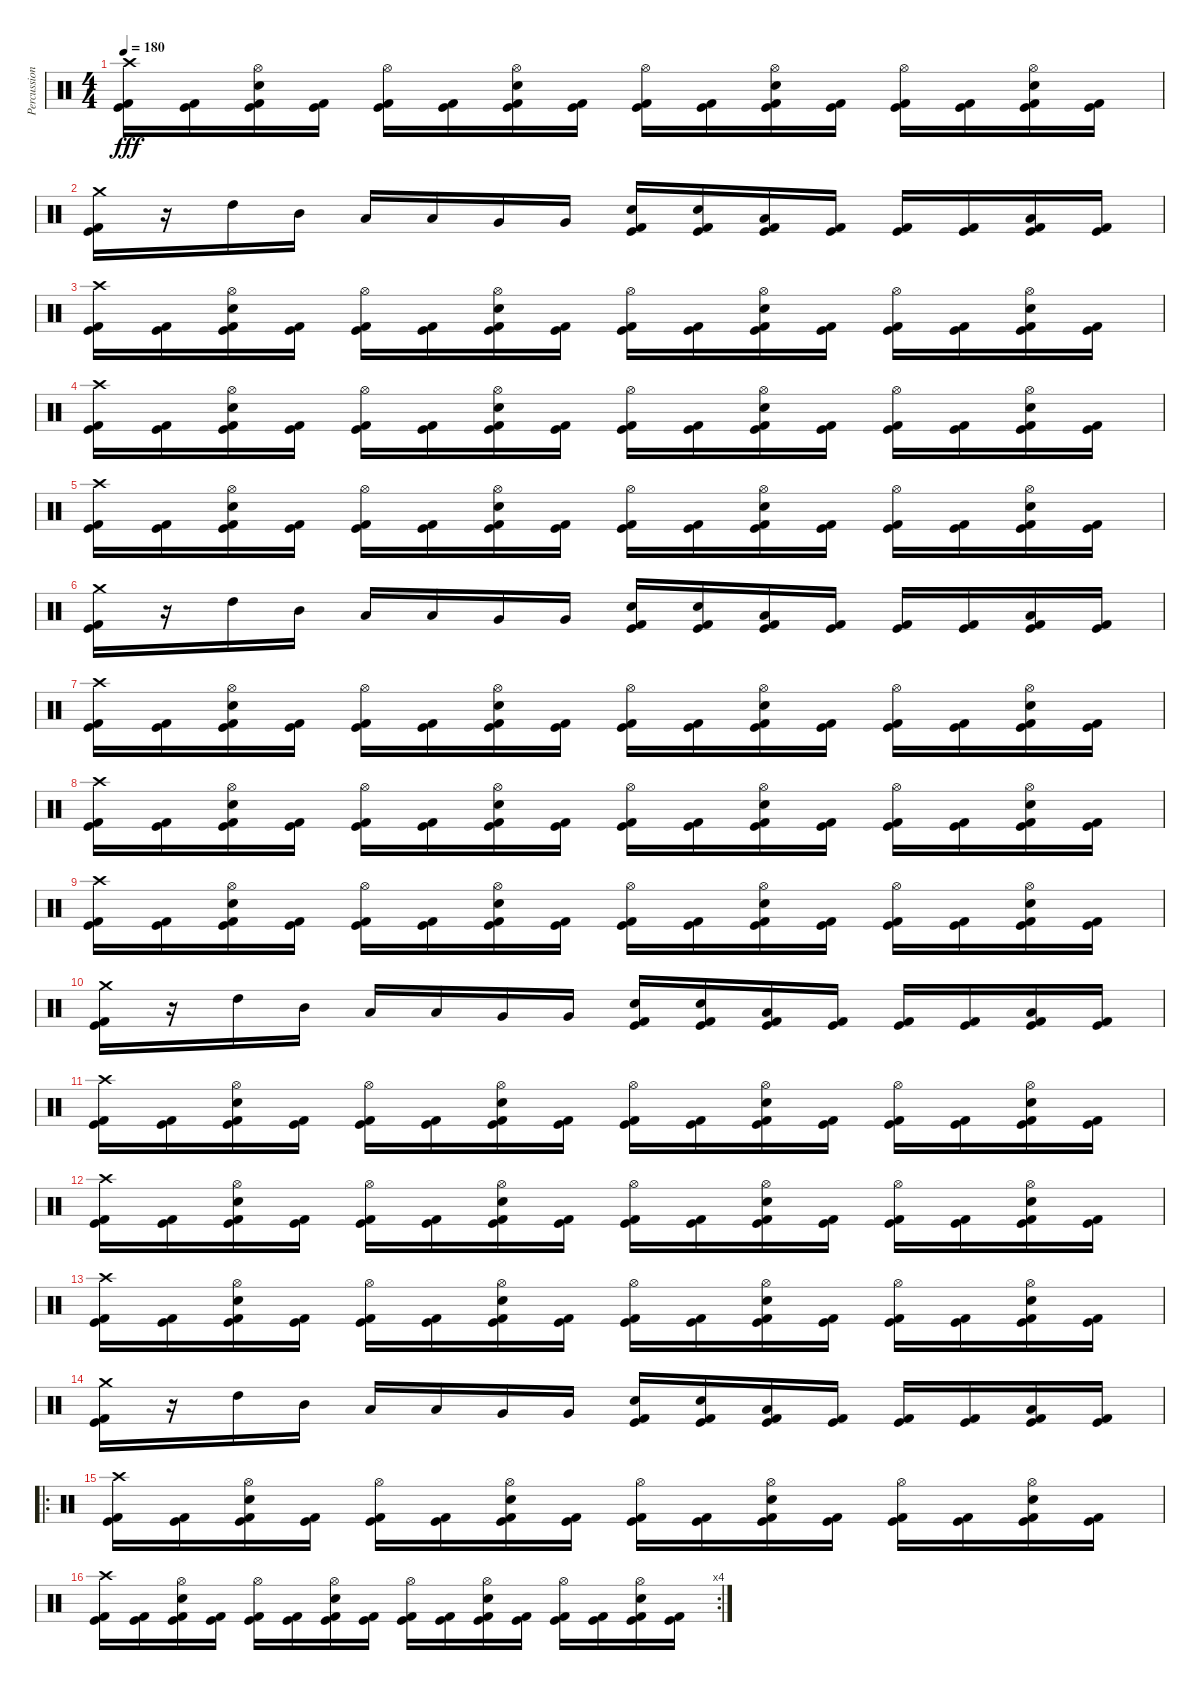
\track ("Percussion" "Percussion") {instrument percussion}
\staff {score}
\articulation defaults
\ts (4 4)
\tempo 180
\clef neutral
\ks c
("Kick (hit) 2" "Kick (hit)" "Crash high (hit)").16{dy fff} ("Kick (hit) 2" "Kick (hit)").16 ("Kick (hit) 2" "Kick (hit)" "Snare (hit) 2" "Hi-Hat (open)").16 ("Kick (hit) 2" "Kick (hit)").16 ("Kick (hit) 2" "Kick (hit)" "Hi-Hat (open)").16 ("Kick (hit) 2" "Kick (hit)").16 ("Kick (hit) 2" "Kick (hit)" "Snare (hit) 2" "Hi-Hat (open)").16 ("Kick (hit) 2" "Kick (hit)").16 ("Kick (hit) 2" "Kick (hit)" "Hi-Hat (open)").16 ("Kick (hit) 2" "Kick (hit)").16 ("Kick (hit) 2" "Kick (hit)" "Snare (hit) 2" "Hi-Hat (open)").16 ("Kick (hit) 2" "Kick (hit)").16 ("Kick (hit) 2" "Kick (hit)" "Hi-Hat (open)").16 ("Kick (hit) 2" "Kick (hit)").16 ("Kick (hit) 2" "Kick (hit)" "Snare (hit) 2" "Hi-Hat (open)").16 ("Kick (hit) 2" "Kick (hit)").16 |
("Kick (hit) 2" "Kick (hit)" "Crash medium (hit)").16 r.16 "High Tom (hit)".16 "Mid Tom (hit)".16 "Low Tom (hit)".16 "Low Tom (hit)".16 "Very Low Tom (hit)".16 "Very Low Tom (hit)".16 ("Kick (hit) 2" "Kick (hit)" "Snare (hit) 2").16 ("Kick (hit) 2" "Kick (hit)" "Snare (hit) 2").16 ("Kick (hit) 2" "Kick (hit)" "Low Tom (hit)").16 ("Kick (hit) 2" "Kick (hit)").16 ("Kick (hit) 2" "Kick (hit)").16 ("Kick (hit) 2" "Kick (hit)").16 ("Kick (hit) 2" "Kick (hit)" "Low Floor Tom (hit)").16 ("Kick (hit) 2" "Kick (hit)").16 |
("Kick (hit) 2" "Kick (hit)" "Crash high (hit)").16 ("Kick (hit) 2" "Kick (hit)").16 ("Kick (hit) 2" "Kick (hit)" "Snare (hit) 2" "Hi-Hat (open)").16 ("Kick (hit) 2" "Kick (hit)").16 ("Kick (hit) 2" "Kick (hit)" "Hi-Hat (open)").16 ("Kick (hit) 2" "Kick (hit)").16 ("Kick (hit) 2" "Kick (hit)" "Snare (hit) 2" "Hi-Hat (open)").16 ("Kick (hit) 2" "Kick (hit)").16 ("Kick (hit) 2" "Kick (hit)" "Hi-Hat (open)").16 ("Kick (hit) 2" "Kick (hit)").16 ("Kick (hit) 2" "Kick (hit)" "Snare (hit) 2" "Hi-Hat (open)").16 ("Kick (hit) 2" "Kick (hit)").16 ("Kick (hit) 2" "Kick (hit)" "Hi-Hat (open)").16 ("Kick (hit) 2" "Kick (hit)").16 ("Kick (hit) 2" "Kick (hit)" "Snare (hit) 2" "Hi-Hat (open)").16 ("Kick (hit) 2" "Kick (hit)").16 |
("Kick (hit) 2" "Kick (hit)" "Crash high (hit)").16 ("Kick (hit) 2" "Kick (hit)").16 ("Kick (hit) 2" "Kick (hit)" "Snare (hit) 2" "Hi-Hat (open)").16 ("Kick (hit) 2" "Kick (hit)").16 ("Kick (hit) 2" "Kick (hit)" "Hi-Hat (open)").16 ("Kick (hit) 2" "Kick (hit)").16 ("Kick (hit) 2" "Kick (hit)" "Snare (hit) 2" "Hi-Hat (open)").16 ("Kick (hit) 2" "Kick (hit)").16 ("Kick (hit) 2" "Kick (hit)" "Hi-Hat (open)").16 ("Kick (hit) 2" "Kick (hit)").16 ("Kick (hit) 2" "Kick (hit)" "Snare (hit) 2" "Hi-Hat (open)").16 ("Kick (hit) 2" "Kick (hit)").16 ("Kick (hit) 2" "Kick (hit)" "Hi-Hat (open)").16 ("Kick (hit) 2" "Kick (hit)").16 ("Kick (hit) 2" "Kick (hit)" "Snare (hit) 2" "Hi-Hat (open)").16 ("Kick (hit) 2" "Kick (hit)").16 |
("Kick (hit) 2" "Kick (hit)" "Crash high (hit)").16 ("Kick (hit) 2" "Kick (hit)").16 ("Kick (hit) 2" "Kick (hit)" "Snare (hit) 2" "Hi-Hat (open)").16 ("Kick (hit) 2" "Kick (hit)").16 ("Kick (hit) 2" "Kick (hit)" "Hi-Hat (open)").16 ("Kick (hit) 2" "Kick (hit)").16 ("Kick (hit) 2" "Kick (hit)" "Snare (hit) 2" "Hi-Hat (open)").16 ("Kick (hit) 2" "Kick (hit)").16 ("Kick (hit) 2" "Kick (hit)" "Hi-Hat (open)").16 ("Kick (hit) 2" "Kick (hit)").16 ("Kick (hit) 2" "Kick (hit)" "Snare (hit) 2" "Hi-Hat (open)").16 ("Kick (hit) 2" "Kick (hit)").16 ("Kick (hit) 2" "Kick (hit)" "Hi-Hat (open)").16 ("Kick (hit) 2" "Kick (hit)").16 ("Kick (hit) 2" "Kick (hit)" "Snare (hit) 2" "Hi-Hat (open)").16 ("Kick (hit) 2" "Kick (hit)").16 |
("Kick (hit) 2" "Kick (hit)" "Crash medium (hit)").16 r.16 "High Tom (hit)".16 "Mid Tom (hit)".16 "Low Tom (hit)".16 "Low Tom (hit)".16 "Very Low Tom (hit)".16 "Very Low Tom (hit)".16 ("Kick (hit) 2" "Kick (hit)" "Snare (hit) 2").16 ("Kick (hit) 2" "Kick (hit)" "Snare (hit) 2").16 ("Kick (hit) 2" "Kick (hit)" "Low Tom (hit)").16 ("Kick (hit) 2" "Kick (hit)").16 ("Kick (hit) 2" "Kick (hit)").16 ("Kick (hit) 2" "Kick (hit)").16 ("Kick (hit) 2" "Kick (hit)" "Low Floor Tom (hit)").16 ("Kick (hit) 2" "Kick (hit)").16 |
("Kick (hit) 2" "Kick (hit)" "Crash high (hit)").16 ("Kick (hit) 2" "Kick (hit)").16 ("Kick (hit) 2" "Kick (hit)" "Snare (hit) 2" "Hi-Hat (open)").16 ("Kick (hit) 2" "Kick (hit)").16 ("Kick (hit) 2" "Kick (hit)" "Hi-Hat (open)").16 ("Kick (hit) 2" "Kick (hit)").16 ("Kick (hit) 2" "Kick (hit)" "Snare (hit) 2" "Hi-Hat (open)").16 ("Kick (hit) 2" "Kick (hit)").16 ("Kick (hit) 2" "Kick (hit)" "Hi-Hat (open)").16 ("Kick (hit) 2" "Kick (hit)").16 ("Kick (hit) 2" "Kick (hit)" "Snare (hit) 2" "Hi-Hat (open)").16 ("Kick (hit) 2" "Kick (hit)").16 ("Kick (hit) 2" "Kick (hit)" "Hi-Hat (open)").16 ("Kick (hit) 2" "Kick (hit)").16 ("Kick (hit) 2" "Kick (hit)" "Snare (hit) 2" "Hi-Hat (open)").16 ("Kick (hit) 2" "Kick (hit)").16 |
("Kick (hit) 2" "Kick (hit)" "Crash high (hit)").16 ("Kick (hit) 2" "Kick (hit)").16 ("Kick (hit) 2" "Kick (hit)" "Snare (hit) 2" "Hi-Hat (open)").16 ("Kick (hit) 2" "Kick (hit)").16 ("Kick (hit) 2" "Kick (hit)" "Hi-Hat (open)").16 ("Kick (hit) 2" "Kick (hit)").16 ("Kick (hit) 2" "Kick (hit)" "Snare (hit) 2" "Hi-Hat (open)").16 ("Kick (hit) 2" "Kick (hit)").16 ("Kick (hit) 2" "Kick (hit)" "Hi-Hat (open)").16 ("Kick (hit) 2" "Kick (hit)").16 ("Kick (hit) 2" "Kick (hit)" "Snare (hit) 2" "Hi-Hat (open)").16 ("Kick (hit) 2" "Kick (hit)").16 ("Kick (hit) 2" "Kick (hit)" "Hi-Hat (open)").16 ("Kick (hit) 2" "Kick (hit)").16 ("Kick (hit) 2" "Kick (hit)" "Snare (hit) 2" "Hi-Hat (open)").16 ("Kick (hit) 2" "Kick (hit)").16 |
("Kick (hit) 2" "Kick (hit)" "Crash high (hit)").16 ("Kick (hit) 2" "Kick (hit)").16 ("Kick (hit) 2" "Kick (hit)" "Snare (hit) 2" "Hi-Hat (open)").16 ("Kick (hit) 2" "Kick (hit)").16 ("Kick (hit) 2" "Kick (hit)" "Hi-Hat (open)").16 ("Kick (hit) 2" "Kick (hit)").16 ("Kick (hit) 2" "Kick (hit)" "Snare (hit) 2" "Hi-Hat (open)").16 ("Kick (hit) 2" "Kick (hit)").16 ("Kick (hit) 2" "Kick (hit)" "Hi-Hat (open)").16 ("Kick (hit) 2" "Kick (hit)").16 ("Kick (hit) 2" "Kick (hit)" "Snare (hit) 2" "Hi-Hat (open)").16 ("Kick (hit) 2" "Kick (hit)").16 ("Kick (hit) 2" "Kick (hit)" "Hi-Hat (open)").16 ("Kick (hit) 2" "Kick (hit)").16 ("Kick (hit) 2" "Kick (hit)" "Snare (hit) 2" "Hi-Hat (open)").16 ("Kick (hit) 2" "Kick (hit)").16 |
("Kick (hit) 2" "Kick (hit)" "Crash medium (hit)").16 r.16 "High Tom (hit)".16 "Mid Tom (hit)".16 "Low Tom (hit)".16 "Low Tom (hit)".16 "Very Low Tom (hit)".16 "Very Low Tom (hit)".16 ("Kick (hit) 2" "Kick (hit)" "Snare (hit) 2").16 ("Kick (hit) 2" "Kick (hit)" "Snare (hit) 2").16 ("Kick (hit) 2" "Kick (hit)" "Low Tom (hit)").16 ("Kick (hit) 2" "Kick (hit)").16 ("Kick (hit) 2" "Kick (hit)").16 ("Kick (hit) 2" "Kick (hit)").16 ("Kick (hit) 2" "Kick (hit)" "Low Floor Tom (hit)").16 ("Kick (hit) 2" "Kick (hit)").16 |
("Kick (hit) 2" "Kick (hit)" "Crash high (hit)").16 ("Kick (hit) 2" "Kick (hit)").16 ("Kick (hit) 2" "Kick (hit)" "Snare (hit) 2" "Hi-Hat (open)").16 ("Kick (hit) 2" "Kick (hit)").16 ("Kick (hit) 2" "Kick (hit)" "Hi-Hat (open)").16 ("Kick (hit) 2" "Kick (hit)").16 ("Kick (hit) 2" "Kick (hit)" "Snare (hit) 2" "Hi-Hat (open)").16 ("Kick (hit) 2" "Kick (hit)").16 ("Kick (hit) 2" "Kick (hit)" "Hi-Hat (open)").16 ("Kick (hit) 2" "Kick (hit)").16 ("Kick (hit) 2" "Kick (hit)" "Snare (hit) 2" "Hi-Hat (open)").16 ("Kick (hit) 2" "Kick (hit)").16 ("Kick (hit) 2" "Kick (hit)" "Hi-Hat (open)").16 ("Kick (hit) 2" "Kick (hit)").16 ("Kick (hit) 2" "Kick (hit)" "Snare (hit) 2" "Hi-Hat (open)").16 ("Kick (hit) 2" "Kick (hit)").16 |
("Kick (hit) 2" "Kick (hit)" "Crash high (hit)").16 ("Kick (hit) 2" "Kick (hit)").16 ("Kick (hit) 2" "Kick (hit)" "Snare (hit) 2" "Hi-Hat (open)").16 ("Kick (hit) 2" "Kick (hit)").16 ("Kick (hit) 2" "Kick (hit)" "Hi-Hat (open)").16 ("Kick (hit) 2" "Kick (hit)").16 ("Kick (hit) 2" "Kick (hit)" "Snare (hit) 2" "Hi-Hat (open)").16 ("Kick (hit) 2" "Kick (hit)").16 ("Kick (hit) 2" "Kick (hit)" "Hi-Hat (open)").16 ("Kick (hit) 2" "Kick (hit)").16 ("Kick (hit) 2" "Kick (hit)" "Snare (hit) 2" "Hi-Hat (open)").16 ("Kick (hit) 2" "Kick (hit)").16 ("Kick (hit) 2" "Kick (hit)" "Hi-Hat (open)").16 ("Kick (hit) 2" "Kick (hit)").16 ("Kick (hit) 2" "Kick (hit)" "Snare (hit) 2" "Hi-Hat (open)").16 ("Kick (hit) 2" "Kick (hit)").16 |
("Kick (hit) 2" "Kick (hit)" "Crash high (hit)").16 ("Kick (hit) 2" "Kick (hit)").16 ("Kick (hit) 2" "Kick (hit)" "Snare (hit) 2" "Hi-Hat (open)").16 ("Kick (hit) 2" "Kick (hit)").16 ("Kick (hit) 2" "Kick (hit)" "Hi-Hat (open)").16 ("Kick (hit) 2" "Kick (hit)").16 ("Kick (hit) 2" "Kick (hit)" "Snare (hit) 2" "Hi-Hat (open)").16 ("Kick (hit) 2" "Kick (hit)").16 ("Kick (hit) 2" "Kick (hit)" "Hi-Hat (open)").16 ("Kick (hit) 2" "Kick (hit)").16 ("Kick (hit) 2" "Kick (hit)" "Snare (hit) 2" "Hi-Hat (open)").16 ("Kick (hit) 2" "Kick (hit)").16 ("Kick (hit) 2" "Kick (hit)" "Hi-Hat (open)").16 ("Kick (hit) 2" "Kick (hit)").16 ("Kick (hit) 2" "Kick (hit)" "Snare (hit) 2" "Hi-Hat (open)").16 ("Kick (hit) 2" "Kick (hit)").16 |
("Kick (hit) 2" "Kick (hit)" "Crash medium (hit)").16 r.16 "High Tom (hit)".16 "Mid Tom (hit)".16 "Low Tom (hit)".16 "Low Tom (hit)".16 "Very Low Tom (hit)".16 "Very Low Tom (hit)".16 ("Kick (hit) 2" "Kick (hit)" "Snare (hit) 2").16 ("Kick (hit) 2" "Kick (hit)" "Snare (hit) 2").16 ("Kick (hit) 2" "Kick (hit)" "Low Tom (hit)").16 ("Kick (hit) 2" "Kick (hit)").16 ("Kick (hit) 2" "Kick (hit)").16 ("Kick (hit) 2" "Kick (hit)").16 ("Kick (hit) 2" "Kick (hit)" "Low Floor Tom (hit)").16 ("Kick (hit) 2" "Kick (hit)").16 |
\ro
("Kick (hit) 2" "Kick (hit)" "Crash high (hit)").16 ("Kick (hit) 2" "Kick (hit)").16 ("Kick (hit) 2" "Kick (hit)" "Snare (hit) 2" "Hi-Hat (open)").16 ("Kick (hit) 2" "Kick (hit)").16 ("Kick (hit) 2" "Kick (hit)" "Hi-Hat (open)").16 ("Kick (hit) 2" "Kick (hit)").16 ("Kick (hit) 2" "Kick (hit)" "Snare (hit) 2" "Hi-Hat (open)").16 ("Kick (hit) 2" "Kick (hit)").16 ("Kick (hit) 2" "Kick (hit)" "Hi-Hat (open)").16 ("Kick (hit) 2" "Kick (hit)").16 ("Kick (hit) 2" "Kick (hit)" "Snare (hit) 2" "Hi-Hat (open)").16 ("Kick (hit) 2" "Kick (hit)").16 ("Kick (hit) 2" "Kick (hit)" "Hi-Hat (open)").16 ("Kick (hit) 2" "Kick (hit)").16 ("Kick (hit) 2" "Kick (hit)" "Snare (hit) 2" "Hi-Hat (open)").16 ("Kick (hit) 2" "Kick (hit)").16 |
\rc 4
("Kick (hit) 2" "Kick (hit)" "Crash high (hit)").16 ("Kick (hit) 2" "Kick (hit)").16 ("Kick (hit) 2" "Kick (hit)" "Snare (hit) 2" "Hi-Hat (open)").16 ("Kick (hit) 2" "Kick (hit)").16 ("Kick (hit) 2" "Kick (hit)" "Hi-Hat (open)").16 ("Kick (hit) 2" "Kick (hit)").16 ("Kick (hit) 2" "Kick (hit)" "Snare (hit) 2" "Hi-Hat (open)").16 ("Kick (hit) 2" "Kick (hit)").16 ("Kick (hit) 2" "Kick (hit)" "Hi-Hat (open)").16 ("Kick (hit) 2" "Kick (hit)").16 ("Kick (hit) 2" "Kick (hit)" "Snare (hit) 2" "Hi-Hat (open)").16 ("Kick (hit) 2" "Kick (hit)").16 ("Kick (hit) 2" "Kick (hit)" "Hi-Hat (open)").16 ("Kick (hit) 2" "Kick (hit)").16 ("Kick (hit) 2" "Kick (hit)" "Snare (hit) 2" "Hi-Hat (open)").16 ("Kick (hit) 2" "Kick (hit)").16
